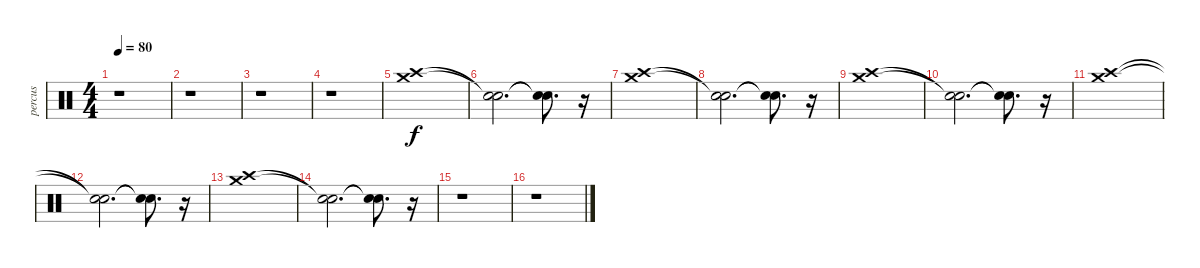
\track ("percus" "percus") {instrument percussion}
\staff {score}
\articulation defaults
\ts (4 4)
\tempo 80
\clef neutral
\ks c
r.1{dy f} |
r.1 |
r.1 |
r.1 |
("Crash high (hit)" "Crash medium (hit)").1 |
("Snare (hit)"{t} "Snare (hit)"{t}).2{d} ("Snare (hit)"{t} "Snare (hit)"{t}).8{d} r.16 |
("Crash high (hit)" "Crash medium (hit)").1 |
("Snare (hit)"{t} "Snare (hit)"{t}).2{d} ("Snare (hit)"{t} "Snare (hit)"{t}).8{d} r.16 |
("Crash high (hit)" "Crash medium (hit)").1 |
("Snare (hit)"{t} "Snare (hit)"{t}).2{d} ("Snare (hit)"{t} "Snare (hit)"{t}).8{d} r.16 |
("Crash high (hit)" "Crash medium (hit)").1 |
("Snare (hit)"{t} "Snare (hit)"{t}).2{d} ("Snare (hit)"{t} "Snare (hit)"{t}).8{d} r.16 |
("Crash high (hit)" "Crash medium (hit)").1 |
("Snare (hit)"{t} "Snare (hit)"{t}).2{d} ("Snare (hit)"{t} "Snare (hit)"{t}).8{d} r.16 |
r.1 |
r.1
